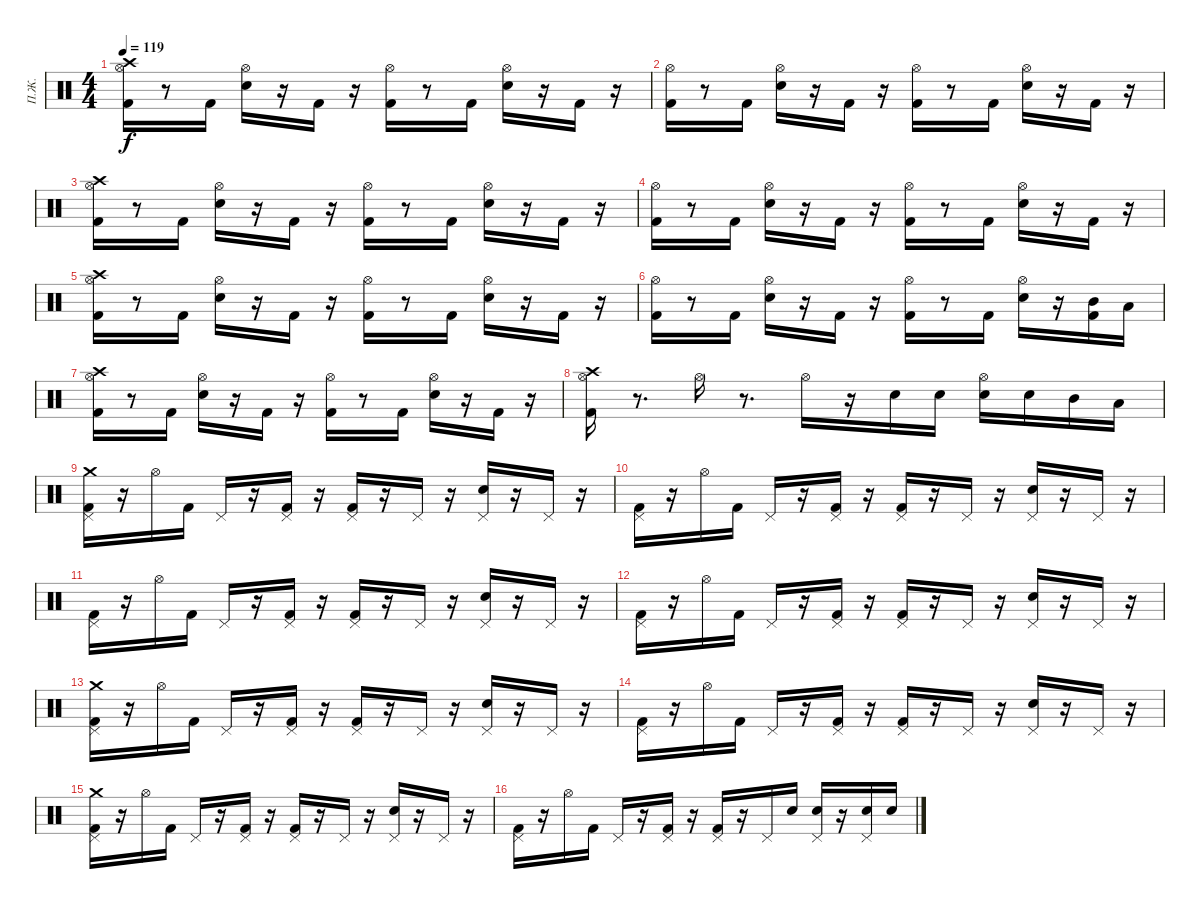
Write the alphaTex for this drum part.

\track ("П.Ж." "П.Ж.") {instrument percussion}
\staff {score}
\articulation defaults
\ts (4 4)
\tempo 119
\clef neutral
\ks c
("Kick (hit) 2" "Crash high (hit)" "Hi-Hat (open)").16{dy f} r.8 "Kick (hit) 2".16 ("Electric Snare (hit)" "Hi-Hat (open)").16 r.16 "Kick (hit) 2".16 r.16 ("Kick (hit) 2" "Hi-Hat (open)").16 r.8 "Kick (hit) 2".16 ("Electric Snare (hit)" "Hi-Hat (open)").16 r.16 "Kick (hit) 2".16 r.16 |
("Hi-Hat (open)" "Kick (hit) 2").16 r.8 "Kick (hit) 2".16 ("Hi-Hat (open)" "Electric Snare (hit)").16 r.16 "Kick (hit) 2".16 r.16 ("Hi-Hat (open)" "Kick (hit) 2").16 r.8 "Kick (hit) 2".16 ("Hi-Hat (open)" "Electric Snare (hit)").16 r.16 "Kick (hit) 2".16 r.16 |
("Kick (hit) 2" "Crash high (hit)" "Hi-Hat (open)").16 r.8 "Kick (hit) 2".16 ("Electric Snare (hit)" "Hi-Hat (open)").16 r.16 "Kick (hit) 2".16 r.16 ("Kick (hit) 2" "Hi-Hat (open)").16 r.8 "Kick (hit) 2".16 ("Electric Snare (hit)" "Hi-Hat (open)").16 r.16 "Kick (hit) 2".16 r.16 |
("Hi-Hat (open)" "Kick (hit) 2").16 r.8 "Kick (hit) 2".16 ("Hi-Hat (open)" "Electric Snare (hit)").16 r.16 "Kick (hit) 2".16 r.16 ("Hi-Hat (open)" "Kick (hit) 2").16 r.8 "Kick (hit) 2".16 ("Hi-Hat (open)" "Electric Snare (hit)").16 r.16 "Kick (hit) 2".16 r.16 |
("Kick (hit) 2" "Crash high (hit)" "Hi-Hat (open)").16 r.8 "Kick (hit) 2".16 ("Electric Snare (hit)" "Hi-Hat (open)").16 r.16 "Kick (hit) 2".16 r.16 ("Kick (hit) 2" "Hi-Hat (open)").16 r.8 "Kick (hit) 2".16 ("Electric Snare (hit)" "Hi-Hat (open)").16 r.16 "Kick (hit) 2".16 r.16 |
("Hi-Hat (open)" "Kick (hit) 2").16 r.8 "Kick (hit) 2".16 ("Hi-Hat (open)" "Electric Snare (hit)").16 r.16 "Kick (hit) 2".16 r.16 ("Hi-Hat (open)" "Kick (hit) 2").16 r.8 "Kick (hit) 2".16 ("Hi-Hat (open)" "Electric Snare (hit)").16 r.16 ("Kick (hit) 2" "Mid Tom (hit)").16 "Low Tom (hit)".16 |
("Kick (hit) 2" "Crash high (hit)" "Hi-Hat (open)").16 r.8 "Kick (hit) 2".16 ("Electric Snare (hit)" "Hi-Hat (open)").16 r.16 "Kick (hit) 2".16 r.16 ("Kick (hit) 2" "Hi-Hat (open)").16 r.8 "Kick (hit) 2".16 ("Electric Snare (hit)" "Hi-Hat (open)").16 r.16 "Kick (hit) 2".16 r.16 |
("Hi-Hat (open)" "Kick (hit) 2" "Crash high (hit)").16 r.8{d} "Hi-Hat (open)".16 r.8{d} "Hi-Hat (open)".16 r.16 "Electric Snare (hit)".16 "Electric Snare (hit)".16 ("Hi-Hat (open)" "Electric Snare (hit)").16 "Electric Snare (hit)".16 "Mid Tom (hit)".16 "Low Tom (hit)".16 |
("Crash medium (hit)" "Kick (hit) 2" "Pedal Hi-Hat (hit)").16 r.16 "Hi-Hat (open)".16 "Kick (hit) 2".16 "Pedal Hi-Hat (hit)".16 r.16 ("Kick (hit) 2" "Pedal Hi-Hat (hit)").16 r.16 ("Kick (hit) 2" "Pedal Hi-Hat (hit)").16 r.16 "Pedal Hi-Hat (hit)".16 r.16 ("Electric Snare (hit)" "Pedal Hi-Hat (hit)").16 r.16 "Pedal Hi-Hat (hit)".16 r.16 |
("Kick (hit) 2" "Pedal Hi-Hat (hit)").16 r.16 "Hi-Hat (open)".16 "Kick (hit) 2".16 "Pedal Hi-Hat (hit)".16 r.16 ("Kick (hit) 2" "Pedal Hi-Hat (hit)").16 r.16 ("Kick (hit) 2" "Pedal Hi-Hat (hit)").16 r.16 "Pedal Hi-Hat (hit)".16 r.16 ("Electric Snare (hit)" "Pedal Hi-Hat (hit)").16 r.16 "Pedal Hi-Hat (hit)".16 r.16 |
("Kick (hit) 2" "Pedal Hi-Hat (hit)").16 r.16 "Hi-Hat (open)".16 "Kick (hit) 2".16 "Pedal Hi-Hat (hit)".16 r.16 ("Kick (hit) 2" "Pedal Hi-Hat (hit)").16 r.16 ("Kick (hit) 2" "Pedal Hi-Hat (hit)").16 r.16 "Pedal Hi-Hat (hit)".16 r.16 ("Electric Snare (hit)" "Pedal Hi-Hat (hit)").16 r.16 "Pedal Hi-Hat (hit)".16 r.16 |
("Kick (hit) 2" "Pedal Hi-Hat (hit)").16 r.16 "Hi-Hat (open)".16 "Kick (hit) 2".16 "Pedal Hi-Hat (hit)".16 r.16 ("Kick (hit) 2" "Pedal Hi-Hat (hit)").16 r.16 ("Kick (hit) 2" "Pedal Hi-Hat (hit)").16 r.16 "Pedal Hi-Hat (hit)".16 r.16 ("Electric Snare (hit)" "Pedal Hi-Hat (hit)").16 r.16 "Pedal Hi-Hat (hit)".16 r.16 |
("Kick (hit) 2" "Pedal Hi-Hat (hit)" "Crash medium (hit)").16 r.16 "Hi-Hat (open)".16 "Kick (hit) 2".16 "Pedal Hi-Hat (hit)".16 r.16 ("Kick (hit) 2" "Pedal Hi-Hat (hit)").16 r.16 ("Kick (hit) 2" "Pedal Hi-Hat (hit)").16 r.16 "Pedal Hi-Hat (hit)".16 r.16 ("Electric Snare (hit)" "Pedal Hi-Hat (hit)").16 r.16 "Pedal Hi-Hat (hit)".16 r.16 |
("Kick (hit) 2" "Pedal Hi-Hat (hit)").16 r.16 "Hi-Hat (open)".16 "Kick (hit) 2".16 "Pedal Hi-Hat (hit)".16 r.16 ("Kick (hit) 2" "Pedal Hi-Hat (hit)").16 r.16 ("Kick (hit) 2" "Pedal Hi-Hat (hit)").16 r.16 "Pedal Hi-Hat (hit)".16 r.16 ("Electric Snare (hit)" "Pedal Hi-Hat (hit)").16 r.16 "Pedal Hi-Hat (hit)".16 r.16 |
("Kick (hit) 2" "Pedal Hi-Hat (hit)" "Crash medium (hit)").16 r.16 "Hi-Hat (open)".16 "Kick (hit) 2".16 "Pedal Hi-Hat (hit)".16 r.16 ("Kick (hit) 2" "Pedal Hi-Hat (hit)").16 r.16 ("Kick (hit) 2" "Pedal Hi-Hat (hit)").16 r.16 "Pedal Hi-Hat (hit)".16 r.16 ("Electric Snare (hit)" "Pedal Hi-Hat (hit)").16 r.16 "Pedal Hi-Hat (hit)".16 r.16 |
("Kick (hit) 2" "Pedal Hi-Hat (hit)").16 r.16 "Hi-Hat (open)".16 "Kick (hit) 2".16 "Pedal Hi-Hat (hit)".16 r.16 ("Kick (hit) 2" "Pedal Hi-Hat (hit)").16 r.16 ("Kick (hit) 2" "Pedal Hi-Hat (hit)").16 r.16 "Pedal Hi-Hat (hit)".16 "Electric Snare (hit)".16 ("Electric Snare (hit)" "Pedal Hi-Hat (hit)").16 r.16 ("Pedal Hi-Hat (hit)" "Electric Snare (hit)").16 "Electric Snare (hit)".16
